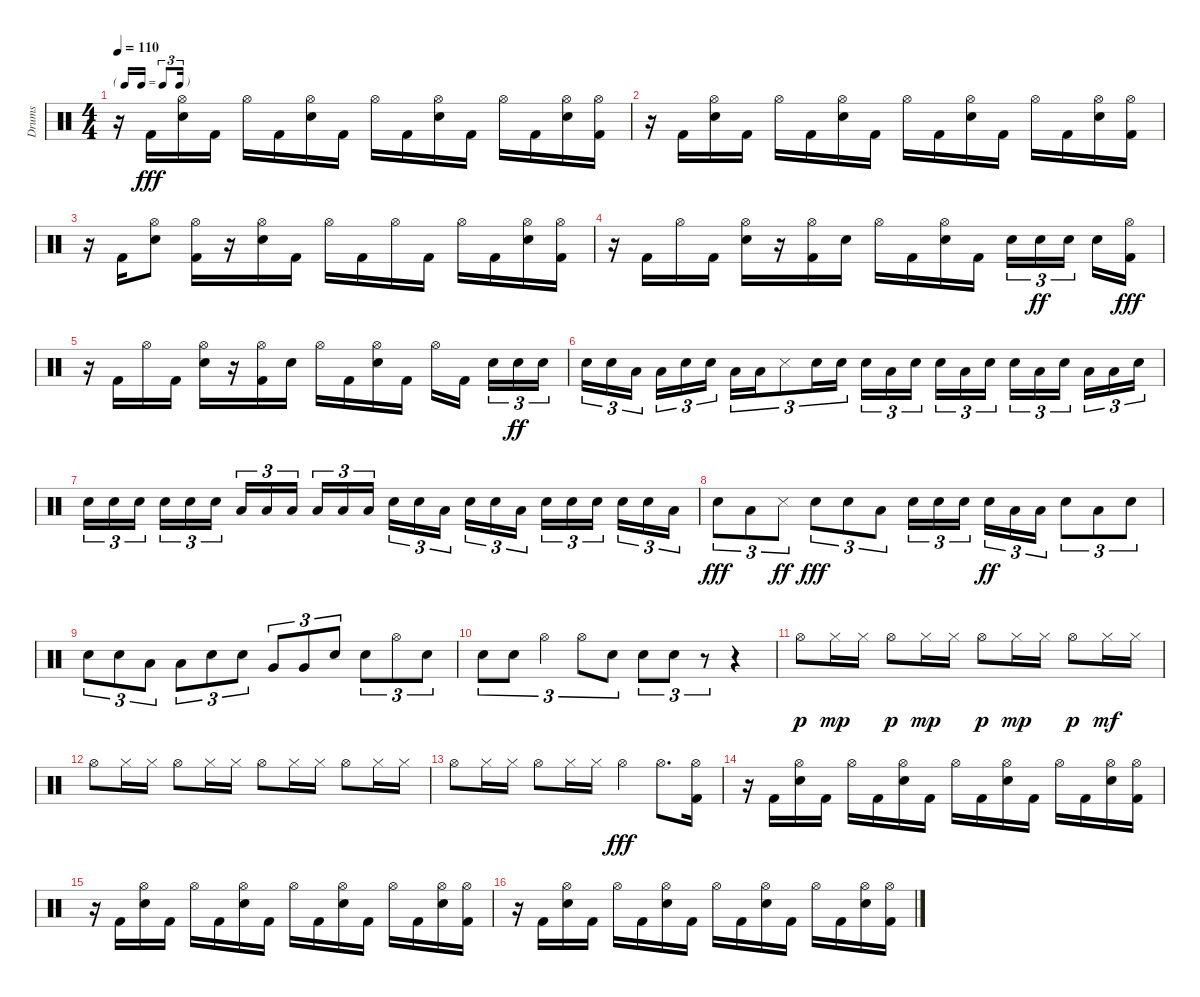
\track ("Drums" "Drums") {instrument percussion}
\staff {score}
\articulation defaults
\ts (4 4)
\tf triplet16th
\tempo 110
\clef neutral
\ks c
r.16{dy fff} "Kick (hit) 2".16 ("Hi-Hat (open)" "Snare (hit) 2").16 "Kick (hit) 2".16 "Hi-Hat (open)".16 "Kick (hit) 2".16 ("Hi-Hat (open)" "Snare (hit) 2").16 "Kick (hit) 2".16 "Hi-Hat (open)".16 "Kick (hit) 2".16 ("Hi-Hat (open)" "Snare (hit) 2").16 "Kick (hit) 2".16 "Hi-Hat (open)".16 "Kick (hit) 2".16 ("Hi-Hat (open)" "Snare (hit) 2").16 ("Hi-Hat (open)" "Kick (hit) 2").16 |
r.16 "Kick (hit) 2".16 ("Hi-Hat (open)" "Snare (hit) 2").16 "Kick (hit) 2".16 "Hi-Hat (open)".16 "Kick (hit) 2".16 ("Hi-Hat (open)" "Snare (hit) 2").16 "Kick (hit) 2".16 "Hi-Hat (open)".16 "Kick (hit) 2".16 ("Hi-Hat (open)" "Snare (hit) 2").16 "Kick (hit) 2".16 "Hi-Hat (open)".16 "Kick (hit) 2".16 ("Hi-Hat (open)" "Snare (hit) 2").16 ("Hi-Hat (open)" "Kick (hit) 2").16 |
r.16 "Kick (hit) 2".16 ("Hi-Hat (open)" "Snare (hit) 2").8 ("Hi-Hat (open)" "Kick (hit) 2").16 r.16 ("Hi-Hat (open)" "Snare (hit) 2").16 "Kick (hit) 2".16 "Hi-Hat (open)".16 "Kick (hit) 2".16 "Hi-Hat (open)".16 "Kick (hit) 2".16 "Hi-Hat (open)".16 "Kick (hit) 2".16 ("Hi-Hat (open)" "Snare (hit) 2").16 ("Hi-Hat (open)" "Kick (hit) 2").16 |
r.16 "Kick (hit) 2".16 "Hi-Hat (open)".16 "Kick (hit) 2".16 ("Hi-Hat (open)" "Snare (hit) 2").16 r.16 ("Hi-Hat (open)" "Kick (hit) 2").16 "Snare (hit) 2".16 "Hi-Hat (open)".16 "Kick (hit) 2".16 ("Hi-Hat (open)" "Snare (hit) 2").16 "Kick (hit) 2".16 "Snare (hit) 2".16{tu (3 2)} "Snare (hit) 2".16{tu (3 2) dy ff} "Snare (hit) 2".16{tu (3 2) beam splitsecondary} "Snare (hit) 2".16 ("Hi-Hat (open)" "Kick (hit) 2").16{dy fff} |
r.16 "Kick (hit) 2".16 "Hi-Hat (open)".16 "Kick (hit) 2".16 ("Hi-Hat (open)" "Snare (hit) 2").16 r.16 ("Hi-Hat (open)" "Kick (hit) 2").16 "Snare (hit) 2".16 "Hi-Hat (open)".16 "Kick (hit) 2".16 ("Hi-Hat (open)" "Snare (hit) 2").16 "Kick (hit) 2".16 "Hi-Hat (open)".16 "Kick (hit) 2".16{beam splitsecondary} "Snare (hit) 2".16{tu (3 2)} "Snare (hit) 2".16{tu (3 2) dy ff} "Snare (hit) 2".16{tu (3 2)} |
"Snare (hit) 2".16{tu (3 2)} "Snare (hit) 2".16{tu (3 2)} "Low Tom (hit)".16{tu (3 2) beam splitsecondary} "Low Tom (hit)".16{tu (3 2)} "Snare (hit) 2".16{tu (3 2)} "Snare (hit) 2".16{tu (3 2)} "Low Tom (hit)".16{tu (3 2)} "Low Tom (hit)".16{tu (3 2)} "Metronome (hit)".8{tu (3 2)} "Snare (hit) 2".16{tu (3 2)} "Snare (hit) 2".16{tu (3 2)} "Snare (hit) 2".16{tu (3 2)} "Low Tom (hit)".16{tu (3 2)} "Snare (hit) 2".16{tu (3 2) beam splitsecondary} "Snare (hit) 2".16{tu (3 2)} "Low Tom (hit)".16{tu (3 2)} "Snare (hit) 2".16{tu (3 2)} "Snare (hit) 2".16{tu (3 2)} "Low Tom (hit)".16{tu (3 2)} "Snare (hit) 2".16{tu (3 2) beam splitsecondary} "Low Tom (hit)".16{tu (3 2)} "Low Tom (hit)".16{tu (3 2)} "Snare (hit) 2".16{tu (3 2)} |
"Snare (hit) 2".16{tu (3 2)} "Snare (hit) 2".16{tu (3 2)} "Snare (hit) 2".16{tu (3 2) beam splitsecondary} "Snare (hit) 2".16{tu (3 2)} "Snare (hit) 2".16{tu (3 2)} "Snare (hit) 2".16{tu (3 2)} "Low Tom (hit)".16{tu (3 2)} "Low Tom (hit)".16{tu (3 2)} "Low Tom (hit)".16{tu (3 2) beam splitsecondary} "Low Tom (hit)".16{tu (3 2)} "Low Tom (hit)".16{tu (3 2)} "Low Tom (hit)".16{tu (3 2)} "Snare (hit) 2".16{tu (3 2)} "Snare (hit) 2".16{tu (3 2)} "Low Tom (hit)".16{tu (3 2) beam splitsecondary} "Snare (hit) 2".16{tu (3 2)} "Snare (hit) 2".16{tu (3 2)} "Low Tom (hit)".16{tu (3 2)} "Snare (hit) 2".16{tu (3 2)} "Snare (hit) 2".16{tu (3 2)} "Snare (hit) 2".16{tu (3 2) beam splitsecondary} "Snare (hit) 2".16{tu (3 2)} "Snare (hit) 2".16{tu (3 2)} "Low Tom (hit)".16{tu (3 2)} |
"Snare (hit) 2".8{tu (3 2) dy fff} "Low Tom (hit)".8{tu (3 2)} "Metronome (hit)".8{tu (3 2) dy ff} "Snare (hit) 2".8{tu (3 2) dy fff} "Snare (hit) 2".8{tu (3 2)} "Low Tom (hit)".8{tu (3 2)} "Snare (hit) 2".16{tu (3 2)} "Snare (hit) 2".16{tu (3 2)} "Snare (hit) 2".16{tu (3 2) beam splitsecondary} "Snare (hit) 2".16{tu (3 2) dy ff} "Low Tom (hit)".16{tu (3 2)} "Low Tom (hit)".16{tu (3 2)} "Snare (hit) 2".8{tu (3 2)} "Low Tom (hit)".8{tu (3 2)} "Snare (hit) 2".8{tu (3 2)} |
"Snare (hit) 2".8{tu (3 2)} "Snare (hit) 2".8{tu (3 2)} "Low Tom (hit)".8{tu (3 2)} "Low Tom (hit)".8{tu (3 2)} "Snare (hit) 2".8{tu (3 2)} "Snare (hit) 2".8{tu (3 2)} "Very Low Tom (hit)".8{tu (3 2)} "Very Low Tom (hit)".8{tu (3 2)} "Snare (hit) 2".8{tu (3 2)} "Snare (hit) 2".8{tu (3 2)} "Hi-Hat (open)".8{tu (3 2)} "Snare (hit) 2".8{tu (3 2)} |
"Snare (hit) 2".8{tu (3 2)} "Snare (hit) 2".8{tu (3 2)} "Hi-Hat (open)".4{tu (3 2)} "Hi-Hat (open)".8{tu (3 2)} "Snare (hit) 2".8{tu (3 2)} "Snare (hit) 2".8{tu (3 2)} "Snare (hit) 2".8{tu (3 2)} r.8{tu (3 2)} r.4 |
"Hi-Hat (open)".8{dy p} "Hi-Hat (closed)".16{dy mp} "Hi-Hat (closed)".16 "Hi-Hat (open)".8{dy p} "Hi-Hat (closed)".16{dy mp} "Hi-Hat (closed)".16 "Hi-Hat (open)".8{dy p} "Hi-Hat (closed)".16{dy mp} "Hi-Hat (closed)".16 "Hi-Hat (open)".8{dy p} "Hi-Hat (closed)".16{dy mf} "Hi-Hat (closed)".16 |
"Hi-Hat (open)".8 "Hi-Hat (closed)".16 "Hi-Hat (closed)".16 "Hi-Hat (open)".8 "Hi-Hat (closed)".16 "Hi-Hat (closed)".16 "Hi-Hat (open)".8 "Hi-Hat (closed)".16 "Hi-Hat (closed)".16 "Hi-Hat (open)".8 "Hi-Hat (closed)".16 "Hi-Hat (closed)".16 |
"Hi-Hat (open)".8 "Hi-Hat (closed)".16 "Hi-Hat (closed)".16 "Hi-Hat (open)".8 "Hi-Hat (closed)".16 "Hi-Hat (closed)".16 "Hi-Hat (open)".4{dy fff} "Hi-Hat (open)".8{d} ("Hi-Hat (open)" "Kick (hit) 2").16 |
r.16 "Kick (hit) 2".16 ("Hi-Hat (open)" "Snare (hit) 2").16 "Kick (hit) 2".16 "Hi-Hat (open)".16 "Kick (hit) 2".16 ("Hi-Hat (open)" "Snare (hit) 2").16 "Kick (hit) 2".16 "Hi-Hat (open)".16 "Kick (hit) 2".16 ("Hi-Hat (open)" "Snare (hit) 2").16 "Kick (hit) 2".16 "Hi-Hat (open)".16 "Kick (hit) 2".16 ("Hi-Hat (open)" "Snare (hit) 2").16 ("Hi-Hat (open)" "Kick (hit) 2").16 |
r.16 "Kick (hit) 2".16 ("Hi-Hat (open)" "Snare (hit) 2").16 "Kick (hit) 2".16 "Hi-Hat (open)".16 "Kick (hit) 2".16 ("Hi-Hat (open)" "Snare (hit) 2").16 "Kick (hit) 2".16 "Hi-Hat (open)".16 "Kick (hit) 2".16 ("Hi-Hat (open)" "Snare (hit) 2").16 "Kick (hit) 2".16 "Hi-Hat (open)".16 "Kick (hit) 2".16 ("Hi-Hat (open)" "Snare (hit) 2").16 ("Hi-Hat (open)" "Kick (hit) 2").16 |
r.16 "Kick (hit) 2".16 ("Hi-Hat (open)" "Snare (hit) 2").16 "Kick (hit) 2".16 "Hi-Hat (open)".16 "Kick (hit) 2".16 ("Hi-Hat (open)" "Snare (hit) 2").16 "Kick (hit) 2".16 "Hi-Hat (open)".16 "Kick (hit) 2".16 ("Hi-Hat (open)" "Snare (hit) 2").16 "Kick (hit) 2".16 "Hi-Hat (open)".16 "Kick (hit) 2".16 ("Hi-Hat (open)" "Snare (hit) 2").16 ("Hi-Hat (open)" "Kick (hit) 2").16
